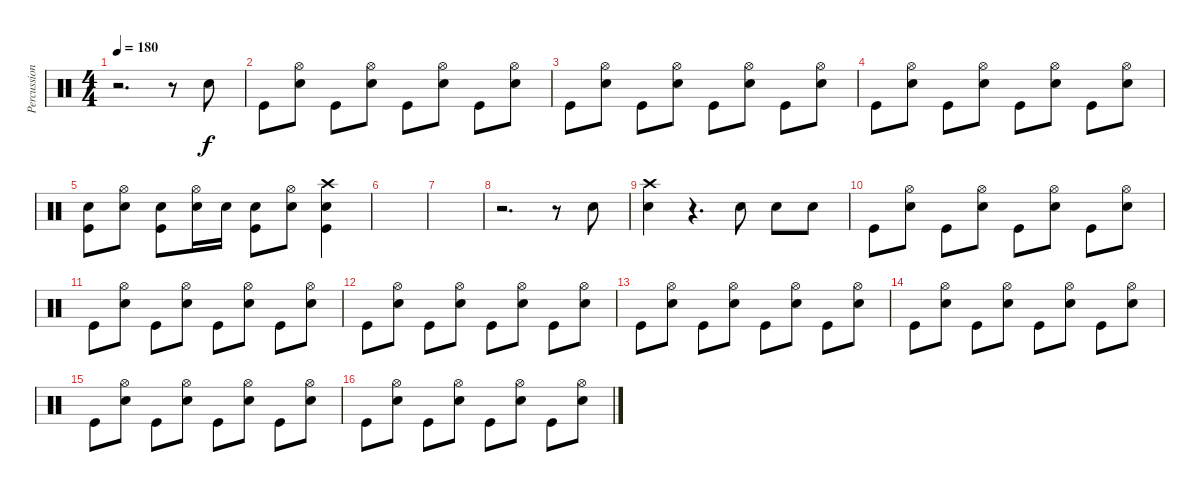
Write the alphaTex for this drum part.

\track ("Percussion" "Percussion") {instrument percussion}
\staff {score}
\articulation defaults
\ts (4 4)
\tempo 180
\clef neutral
\ks c
r.2{d dy f} r.8 "Electric Snare (hit)".8 |
"Kick (hit)".8 ("Hi-Hat (open)" "Electric Snare (hit)").8 "Kick (hit)".8 ("Hi-Hat (open)" "Electric Snare (hit)").8 "Kick (hit)".8 ("Hi-Hat (open)" "Electric Snare (hit)").8 "Kick (hit)".8 ("Hi-Hat (open)" "Electric Snare (hit)").8 |
"Kick (hit)".8 ("Hi-Hat (open)" "Electric Snare (hit)").8 "Kick (hit)".8 ("Hi-Hat (open)" "Electric Snare (hit)").8 "Kick (hit)".8 ("Hi-Hat (open)" "Electric Snare (hit)").8 "Kick (hit)".8 ("Hi-Hat (open)" "Electric Snare (hit)").8 |
"Kick (hit)".8 ("Hi-Hat (open)" "Electric Snare (hit)").8 "Kick (hit)".8 ("Hi-Hat (open)" "Electric Snare (hit)").8 "Kick (hit)".8 ("Hi-Hat (open)" "Electric Snare (hit)").8 "Kick (hit)".8 ("Hi-Hat (open)" "Electric Snare (hit)").8 |
("Electric Snare (hit)" "Kick (hit)").8 ("Hi-Hat (open)" "Electric Snare (hit)").8 ("Electric Snare (hit)" "Kick (hit)").8 ("Hi-Hat (open)" "Electric Snare (hit)").16 "Electric Snare (hit)".16 ("Electric Snare (hit)" "Kick (hit)").8 ("Hi-Hat (open)" "Electric Snare (hit)").8 ("Crash high (hit)" "Electric Snare (hit)" "Kick (hit)").4 |
|
|
r.2{d} r.8 "Snare (hit) 2".8 |
("Crash high (hit)" "Electric Snare (hit)").4 r.4{d} "Electric Snare (hit)".8 "Electric Snare (hit)".8 "Electric Snare (hit)".8 |
"Kick (hit)".8 ("Hi-Hat (open)" "Electric Snare (hit)").8 "Kick (hit)".8 ("Hi-Hat (open)" "Electric Snare (hit)").8 "Kick (hit)".8 ("Hi-Hat (open)" "Electric Snare (hit)").8 "Kick (hit)".8 ("Hi-Hat (open)" "Electric Snare (hit)").8 |
"Kick (hit)".8 ("Hi-Hat (open)" "Electric Snare (hit)").8 "Kick (hit)".8 ("Hi-Hat (open)" "Electric Snare (hit)").8 "Kick (hit)".8 ("Hi-Hat (open)" "Electric Snare (hit)").8 "Kick (hit)".8 ("Hi-Hat (open)" "Electric Snare (hit)").8 |
"Kick (hit)".8 ("Hi-Hat (open)" "Electric Snare (hit)").8 "Kick (hit)".8 ("Hi-Hat (open)" "Electric Snare (hit)").8 "Kick (hit)".8 ("Hi-Hat (open)" "Electric Snare (hit)").8 "Kick (hit)".8 ("Hi-Hat (open)" "Electric Snare (hit)").8 |
"Kick (hit)".8 ("Hi-Hat (open)" "Electric Snare (hit)").8 "Kick (hit)".8 ("Hi-Hat (open)" "Electric Snare (hit)").8 "Kick (hit)".8 ("Hi-Hat (open)" "Electric Snare (hit)").8 "Kick (hit)".8 ("Hi-Hat (open)" "Electric Snare (hit)").8 |
"Kick (hit)".8 ("Hi-Hat (open)" "Electric Snare (hit)").8 "Kick (hit)".8 ("Hi-Hat (open)" "Electric Snare (hit)").8 "Kick (hit)".8 ("Hi-Hat (open)" "Electric Snare (hit)").8 "Kick (hit)".8 ("Hi-Hat (open)" "Electric Snare (hit)").8 |
"Kick (hit)".8 ("Hi-Hat (open)" "Electric Snare (hit)").8 "Kick (hit)".8 ("Hi-Hat (open)" "Electric Snare (hit)").8 "Kick (hit)".8 ("Hi-Hat (open)" "Electric Snare (hit)").8 "Kick (hit)".8 ("Hi-Hat (open)" "Electric Snare (hit)").8 |
"Kick (hit)".8 ("Hi-Hat (open)" "Electric Snare (hit)").8 "Kick (hit)".8 ("Hi-Hat (open)" "Electric Snare (hit)").8 "Kick (hit)".8 ("Hi-Hat (open)" "Electric Snare (hit)").8 "Kick (hit)".8 ("Hi-Hat (open)" "Electric Snare (hit)").8
